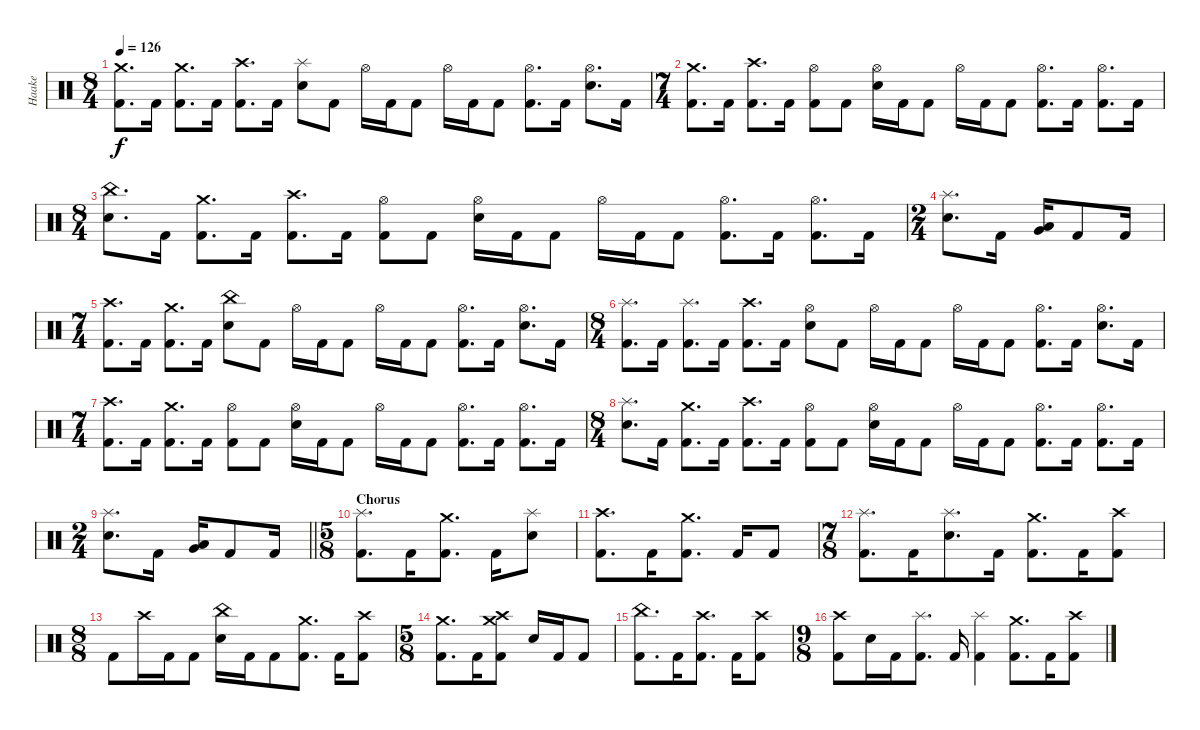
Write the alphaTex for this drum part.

\track ("Haake" "Haake") {instrument percussion}
\staff {score}
\articulation defaults
\ts (8 4)
\tempo 126
\clef neutral
\ks c
("Crash medium (hit)" "Kick (hit) 2").8{d dy f} "Kick (hit) 2".16 ("Crash medium (hit)" "Kick (hit) 2").8{d} "Kick (hit) 2".16 ("Crash high (hit)" "Kick (hit) 2").8{d} "Kick (hit) 2".16 ("Splash (hit)" "Electric Snare (hit)").8 "Kick (hit) 2".8 "Hi-Hat (open)".16 "Kick (hit) 2".16 "Kick (hit) 2".8 "Hi-Hat (open)".16 "Kick (hit) 2".16 "Kick (hit) 2".8 ("Hi-Hat (open)" "Kick (hit) 2").8{d} "Kick (hit) 2".16 ("Hi-Hat (open)" "Electric Snare (hit)").8{d} "Kick (hit) 2".16 |
\ts (7 4)
("Crash medium (hit)" "Kick (hit) 2").8{d} "Kick (hit) 2".16 ("Crash high (hit)" "Kick (hit) 2").8{d} "Kick (hit) 2".16 ("Hi-Hat (open)" "Kick (hit) 2").8 "Kick (hit) 2".8 ("Hi-Hat (open)" "Electric Snare (hit)").16 "Kick (hit) 2".16 "Kick (hit) 2".8 "Hi-Hat (open)".16 "Kick (hit) 2".16 "Kick (hit) 2".8 ("Hi-Hat (open)" "Kick (hit) 2").8{d} "Kick (hit) 2".16 ("Hi-Hat (open)" "Kick (hit) 2").8{d} "Kick (hit) 2".16 |
\ts (8 4)
("China (hit)" "Electric Snare (hit)").8{d} "Kick (hit) 2".16 ("Crash medium (hit)" "Kick (hit) 2").8{d} "Kick (hit) 2".16 ("Crash high (hit)" "Kick (hit) 2").8{d} "Kick (hit) 2".16 ("Hi-Hat (open)" "Kick (hit) 2").8 "Kick (hit) 2".8 ("Hi-Hat (open)" "Electric Snare (hit)").16 "Kick (hit) 2".16 "Kick (hit) 2".8 "Hi-Hat (open)".16 "Kick (hit) 2".16 "Kick (hit) 2".8 ("Hi-Hat (open)" "Kick (hit) 2").8{d} "Kick (hit) 2".16 ("Hi-Hat (open)" "Kick (hit) 2").8{d} "Kick (hit) 2".16 |
\ts (2 4)
("Splash (hit)" "Electric Snare (hit)").8{d} "Kick (hit) 2".16 ("Low Tom (hit)" "Very Low Tom (hit)").16 "Kick (hit) 2".8 "Kick (hit) 2".16 |
\ts (7 4)
("Crash high (hit)" "Kick (hit) 2").8{d} "Kick (hit) 2".16 ("Crash medium (hit)" "Kick (hit) 2").8{d} "Kick (hit) 2".16 ("China (hit)" "Electric Snare (hit)").8 "Kick (hit) 2".8 "Hi-Hat (open)".16 "Kick (hit) 2".16 "Kick (hit) 2".8 "Hi-Hat (open)".16 "Kick (hit) 2".16 "Kick (hit) 2".8 ("Hi-Hat (open)" "Kick (hit) 2").8{d} "Kick (hit) 2".16 ("Hi-Hat (open)" "Electric Snare (hit)").8{d} "Kick (hit) 2".16 |
\ts (8 4)
("Splash (hit)" "Kick (hit) 2").8{d} "Kick (hit) 2".16 ("Splash (hit)" "Kick (hit) 2").8{d} "Kick (hit) 2".16 ("Crash high (hit)" "Kick (hit) 2").8{d} "Kick (hit) 2".16 ("Hi-Hat (open)" "Electric Snare (hit)").8 "Kick (hit) 2".8 "Hi-Hat (open)".16 "Kick (hit) 2".16 "Kick (hit) 2".8 "Hi-Hat (open)".16 "Kick (hit) 2".16 "Kick (hit) 2".8 ("Hi-Hat (open)" "Kick (hit) 2").8{d} "Kick (hit) 2".16 ("Hi-Hat (open)" "Electric Snare (hit)").8{d} "Kick (hit) 2".16 |
\ts (7 4)
("Crash high (hit)" "Kick (hit) 2").8{d} "Kick (hit) 2".16 ("Crash medium (hit)" "Kick (hit) 2").8{d} "Kick (hit) 2".16 ("Hi-Hat (open)" "Kick (hit) 2").8 "Kick (hit) 2".8 ("Hi-Hat (open)" "Electric Snare (hit)").16 "Kick (hit) 2".16 "Kick (hit) 2".8 "Hi-Hat (open)".16 "Kick (hit) 2".16 "Kick (hit) 2".8 ("Hi-Hat (open)" "Kick (hit) 2").8{d} "Kick (hit) 2".16 ("Hi-Hat (open)" "Kick (hit) 2").8{d} "Kick (hit) 2".16 |
\ts (8 4)
("Splash (hit)" "Electric Snare (hit)").8{d} "Kick (hit) 2".16 ("Crash medium (hit)" "Kick (hit) 2").8{d} "Kick (hit) 2".16 ("Crash high (hit)" "Kick (hit) 2").8{d} "Kick (hit) 2".16 ("Hi-Hat (open)" "Kick (hit) 2").8 "Kick (hit) 2".8 ("Hi-Hat (open)" "Electric Snare (hit)").16 "Kick (hit) 2".16 "Kick (hit) 2".8 "Hi-Hat (open)".16 "Kick (hit) 2".16 "Kick (hit) 2".8 ("Hi-Hat (open)" "Kick (hit) 2").8{d} "Kick (hit) 2".16 ("Hi-Hat (open)" "Kick (hit) 2").8{d} "Kick (hit) 2".16 |
\ts (2 4)
\barLineRight lightlight
("Splash (hit)" "Electric Snare (hit)").8{d} "Kick (hit) 2".16 ("Low Tom (hit)" "Very Low Tom (hit)").16 "Kick (hit) 2".8 "Kick (hit) 2".16 |
\ts (5 8)
\section ("" "Chorus")
("Splash (hit)" "Kick (hit) 2").8{d} "Kick (hit) 2".16 ("Crash medium (hit)" "Kick (hit) 2").8{d} "Kick (hit) 2".16 ("Splash (hit)" "Electric Snare (hit)").8 |
("Crash high (hit)" "Kick (hit) 2").8{d} "Kick (hit) 2".16 ("Crash medium (hit)" "Kick (hit) 2").8{d} "Kick (hit) 2".16 "Kick (hit) 2".8 |
\ts (7 8)
("Splash (hit)" "Kick (hit) 2").8{d} "Kick (hit) 2".16 ("Splash (hit)" "Electric Snare (hit)").8{d} "Kick (hit) 2".16 ("Crash medium (hit)" "Kick (hit) 2").8{d} "Kick (hit) 2".16 ("Crash high (hit)" "Kick (hit) 2").8 |
\ts (8 8)
"Kick (hit) 2".8 "Crash high (hit)".16 "Kick (hit) 2".16 "Kick (hit) 2".8 ("China (hit)" "Electric Snare (hit)").16 "Kick (hit) 2".16 "Kick (hit) 2".8 ("Crash medium (hit)" "Kick (hit) 2").8{d} "Kick (hit) 2".16 ("Crash high (hit)" "Kick (hit) 2").8 |
\ts (5 8)
("Crash medium (hit)" "Kick (hit) 2").8{d} "Kick (hit) 2".16 ("Crash high (hit)" "Crash medium (hit)" "Kick (hit) 2").8 "Electric Snare (hit)".16 "Kick (hit) 2".16 "Kick (hit) 2".8 |
("China (hit)" "Kick (hit) 2").8{d} "Kick (hit) 2".16 ("Crash high (hit)" "Kick (hit) 2").8{d} "Kick (hit) 2".16 ("Crash high (hit)" "Kick (hit) 2").8 |
\ts (9 8)
("Crash high (hit)" "Kick (hit) 2").8 "Electric Snare (hit)".16 "Kick (hit) 2".16 ("Splash (hit)" "Kick (hit) 2").8{d} "Kick (hit) 2".16 ("Splash (hit)" "Kick (hit) 2").4 ("Crash medium (hit)" "Kick (hit) 2").8{d} "Kick (hit) 2".16 ("Crash high (hit)" "Kick (hit) 2").8
